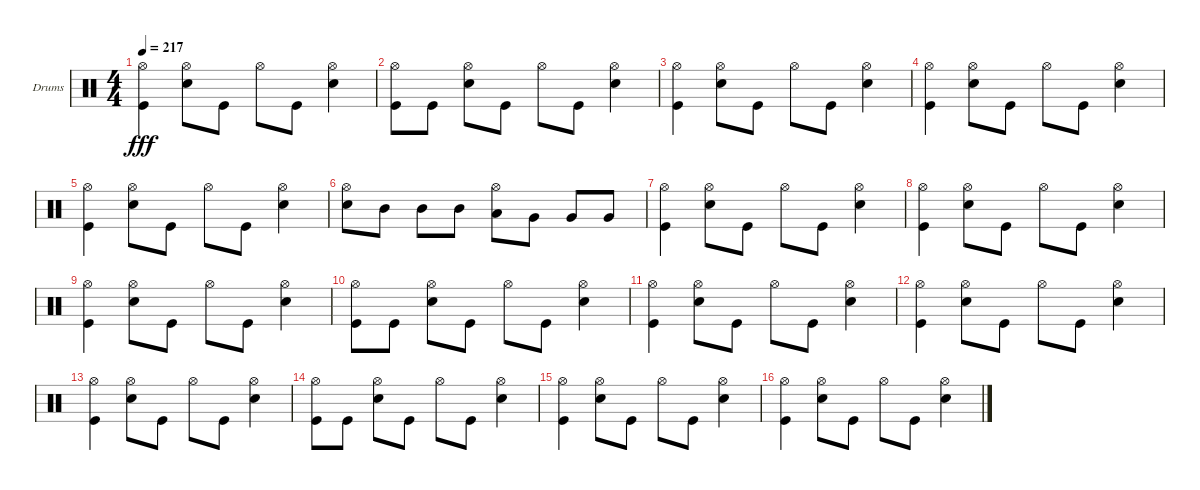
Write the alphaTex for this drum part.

\bracketExtendMode groupsimilarinstruments
\firstSystemTrackNameOrientation horizontal
\otherSystemsTrackNameOrientation horizontal
\track ("Drumkit" "Drums") {instrument percussion}
\staff {score}
\articulation defaults
\ts (4 4)
\tempo 217
\clef neutral
\ks c
("Kick (hit)" "Hi-Hat (open)").4{dy fff} ("Hi-Hat (open)" "Snare (hit) 2").8 "Kick (hit)".8 "Hi-Hat (open)".8 "Kick (hit)".8 ("Snare (hit) 2" "Hi-Hat (open)").4 |
("Kick (hit)" "Hi-Hat (open)").8 "Kick (hit)".8 ("Snare (hit) 2" "Hi-Hat (open)").8 "Kick (hit)".8 "Hi-Hat (open)".8 "Kick (hit)".8 ("Snare (hit) 2" "Hi-Hat (open)").4 |
("Kick (hit)" "Hi-Hat (open)").4 ("Hi-Hat (open)" "Snare (hit) 2").8 "Kick (hit)".8 "Hi-Hat (open)".8 "Kick (hit)".8 ("Snare (hit) 2" "Hi-Hat (open)").4 |
("Kick (hit)" "Hi-Hat (open)").4 ("Hi-Hat (open)" "Snare (hit) 2").8 "Kick (hit)".8 "Hi-Hat (open)".8 "Kick (hit)".8 ("Snare (hit) 2" "Hi-Hat (open)").4 |
("Kick (hit)" "Hi-Hat (open)").4 ("Hi-Hat (open)" "Snare (hit) 2").8 "Kick (hit)".8 "Hi-Hat (open)".8 "Kick (hit)".8 ("Snare (hit) 2" "Hi-Hat (open)").4 |
("Snare (hit) 2" "Hi-Hat (open)").8 "Mid Tom (hit)".8 "Mid Tom (hit)".8 "Mid Tom (hit)".8 ("Low Tom (hit)" "Hi-Hat (open)").8 "Very Low Tom (hit)".8 "Very Low Tom (hit)".8 "Very Low Tom (hit)".8 |
("Kick (hit)" "Hi-Hat (open)").4 ("Hi-Hat (open)" "Snare (hit) 2").8 "Kick (hit)".8 "Hi-Hat (open)".8 "Kick (hit)".8 ("Snare (hit) 2" "Hi-Hat (open)").4 |
("Kick (hit)" "Hi-Hat (open)").4 ("Hi-Hat (open)" "Snare (hit) 2").8 "Kick (hit)".8 "Hi-Hat (open)".8 "Kick (hit)".8 ("Snare (hit) 2" "Hi-Hat (open)").4 |
("Kick (hit)" "Hi-Hat (open)").4 ("Hi-Hat (open)" "Snare (hit) 2").8 "Kick (hit)".8 "Hi-Hat (open)".8 "Kick (hit)".8 ("Snare (hit) 2" "Hi-Hat (open)").4 |
("Kick (hit)" "Hi-Hat (open)").8 "Kick (hit)".8 ("Snare (hit) 2" "Hi-Hat (open)").8 "Kick (hit)".8 "Hi-Hat (open)".8 "Kick (hit)".8 ("Snare (hit) 2" "Hi-Hat (open)").4 |
("Kick (hit)" "Hi-Hat (open)").4 ("Hi-Hat (open)" "Snare (hit) 2").8 "Kick (hit)".8 "Hi-Hat (open)".8 "Kick (hit)".8 ("Snare (hit) 2" "Hi-Hat (open)").4 |
("Kick (hit)" "Hi-Hat (open)").4 ("Hi-Hat (open)" "Snare (hit) 2").8 "Kick (hit)".8 "Hi-Hat (open)".8 "Kick (hit)".8 ("Snare (hit) 2" "Hi-Hat (open)").4 |
("Kick (hit)" "Hi-Hat (open)").4 ("Hi-Hat (open)" "Snare (hit) 2").8 "Kick (hit)".8 "Hi-Hat (open)".8 "Kick (hit)".8 ("Snare (hit) 2" "Hi-Hat (open)").4 |
("Kick (hit)" "Hi-Hat (open)").8 "Kick (hit)".8 ("Snare (hit) 2" "Hi-Hat (open)").8 "Kick (hit)".8 "Hi-Hat (open)".8 "Kick (hit)".8 ("Snare (hit) 2" "Hi-Hat (open)").4 |
("Kick (hit)" "Hi-Hat (open)").4 ("Hi-Hat (open)" "Snare (hit) 2").8 "Kick (hit)".8 "Hi-Hat (open)".8 "Kick (hit)".8 ("Snare (hit) 2" "Hi-Hat (open)").4 |
("Kick (hit)" "Hi-Hat (open)").4 ("Hi-Hat (open)" "Snare (hit) 2").8 "Kick (hit)".8 "Hi-Hat (open)".8 "Kick (hit)".8 ("Snare (hit) 2" "Hi-Hat (open)").4
